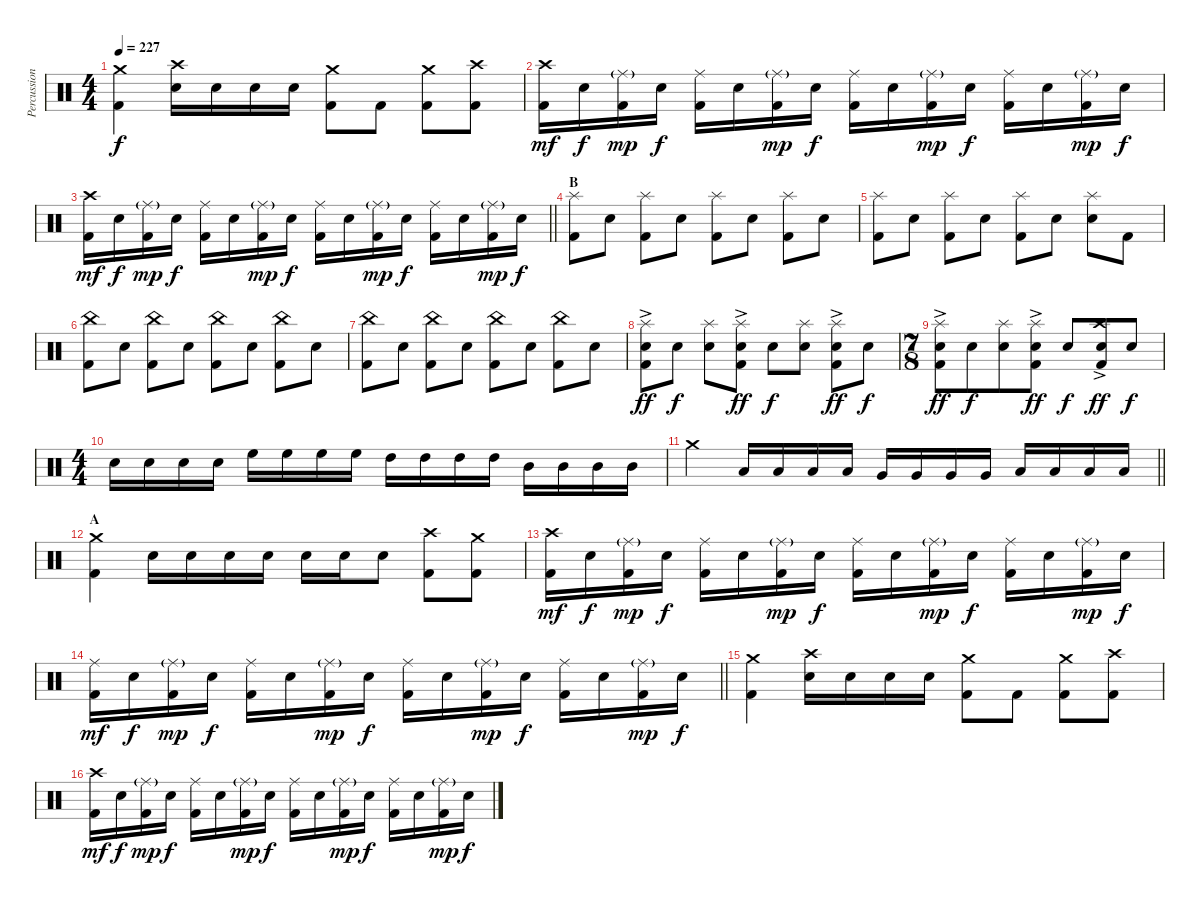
\track ("Percussion" "Percussion") {instrument percussion}
\staff {score}
\articulation defaults
\ts (4 4)
\section ("" "")
\tempo 227
\clef neutral
\ks c
("Crash medium (hit)" "Kick (hit) 2").4{dy f} ("Crash high (hit)" "Electric Snare (hit)").16 "Electric Snare (hit)".16 "Electric Snare (hit)".16 "Electric Snare (hit)".16 ("Crash medium (hit)" "Kick (hit) 2").8 "Kick (hit) 2".8 ("Crash medium (hit)" "Kick (hit) 2").8 ("Crash high (hit)" "Kick (hit) 2").8 |
("Crash high (hit)" "Kick (hit) 2").16{dy mf} "Electric Snare (hit)".16{dy f} ("Ride (middle)"{g} "Kick (hit) 2").16{dy mp} "Electric Snare (hit)".16{dy f} ("Ride (middle)" "Kick (hit) 2").16 "Electric Snare (hit)".16 ("Ride (middle)"{g} "Kick (hit) 2").16{dy mp} "Electric Snare (hit)".16{dy f} ("Ride (middle)" "Kick (hit) 2").16 "Electric Snare (hit)".16 ("Ride (middle)"{g} "Kick (hit) 2").16{dy mp} "Electric Snare (hit)".16{dy f} ("Ride (middle)" "Kick (hit) 2").16 "Electric Snare (hit)".16 ("Ride (middle)"{g} "Kick (hit) 2").16{dy mp} "Electric Snare (hit)".16{dy f} |
\barLineRight lightlight
("Crash high (hit)" "Kick (hit) 2").16{dy mf} "Electric Snare (hit)".16{dy f} ("Ride (middle)"{g} "Kick (hit) 2").16{dy mp} "Electric Snare (hit)".16{dy f} ("Ride (middle)" "Kick (hit) 2").16 "Electric Snare (hit)".16 ("Ride (middle)"{g} "Kick (hit) 2").16{dy mp} "Electric Snare (hit)".16{dy f} ("Ride (middle)" "Kick (hit) 2").16 "Electric Snare (hit)".16 ("Ride (middle)"{g} "Kick (hit) 2").16{dy mp} "Electric Snare (hit)".16{dy f} ("Ride (middle)" "Kick (hit) 2").16 "Electric Snare (hit)".16 ("Ride (middle)"{g} "Kick (hit) 2").16{dy mp} "Electric Snare (hit)".16{dy f} |
\section ("" "B")
("Splash (hit)" "Kick (hit) 2").8 "Electric Snare (hit)".8 ("Splash (hit)" "Kick (hit) 2").8 "Electric Snare (hit)".8 ("Splash (hit)" "Kick (hit) 2").8 "Electric Snare (hit)".8 ("Splash (hit)" "Kick (hit) 2").8 "Electric Snare (hit)".8 |
("Splash (hit)" "Kick (hit) 2").8 "Electric Snare (hit)".8 ("Splash (hit)" "Kick (hit) 2").8 "Electric Snare (hit)".8 ("Splash (hit)" "Kick (hit) 2").8 "Electric Snare (hit)".8 ("Splash (hit)" "Electric Snare (hit)").8 "Kick (hit) 2".8 |
("China (hit)" "Kick (hit) 2").8 "Electric Snare (hit)".8 ("China (hit)" "Kick (hit) 2").8 "Electric Snare (hit)".8 ("China (hit)" "Kick (hit) 2").8 "Electric Snare (hit)".8 ("China (hit)" "Kick (hit) 2").8 "Electric Snare (hit)".8 |
("China (hit)" "Kick (hit) 2").8 "Electric Snare (hit)".8 ("China (hit)" "Kick (hit) 2").8 "Electric Snare (hit)".8 ("China (hit)" "Kick (hit) 2").8 "Electric Snare (hit)".8 ("China (hit)" "Kick (hit) 2").8 "Electric Snare (hit)".8 |
("Splash (hit)"{ac} "Electric Snare (hit)" "Kick (hit) 2").8{dy ff} "Electric Snare (hit)".8{dy f} ("Splash (hit)" "Electric Snare (hit)").8 ("Splash (hit)"{ac} "Electric Snare (hit)" "Kick (hit) 2").8{dy ff} "Electric Snare (hit)".8{dy f} ("Splash (hit)" "Electric Snare (hit)").8 ("Splash (hit)"{ac} "Electric Snare (hit)" "Kick (hit) 2").8{dy ff} "Electric Snare (hit)".8{dy f} |
\ts (7 8)
("Splash (hit)"{ac} "Electric Snare (hit)" "Kick (hit) 2").8{dy ff} "Electric Snare (hit)".8{dy f} ("Splash (hit)" "Electric Snare (hit)").8 ("Splash (hit)"{ac} "Electric Snare (hit)" "Kick (hit) 2").8{dy ff} "Electric Snare (hit)".8{dy f} ("Crash high (hit)"{ac} "Electric Snare (hit)" "Kick (hit) 2").8{dy ff} "Electric Snare (hit)".8{dy f} |
\ts (4 4)
"Electric Snare (hit)".16 "Electric Snare (hit)".16 "Electric Snare (hit)".16 "Electric Snare (hit)".16 "High Floor Tom (hit)".16 "High Floor Tom (hit)".16 "High Floor Tom (hit)".16 "High Floor Tom (hit)".16 "High Tom (hit)".16 "High Tom (hit)".16 "High Tom (hit)".16 "High Tom (hit)".16 "Mid Tom (hit)".16 "Mid Tom (hit)".16 "Mid Tom (hit)".16 "Mid Tom (hit)".16 |
\barLineRight lightlight "Crash medium (hit)".4 "Low Tom (hit)".16 "Low Tom (hit)".16 "Low Tom (hit)".16 "Low Tom (hit)".16 "Very Low Tom (hit)".16 "Very Low Tom (hit)".16 "Very Low Tom (hit)".16 "Very Low Tom (hit)".16 "Low Floor Tom (hit)".16 "Low Floor Tom (hit)".16 "Low Floor Tom (hit)".16 "Low Floor Tom (hit)".16
|
\section ("" "A")
("Crash medium (hit)" "Kick (hit) 2").4 "Electric Snare (hit)".16 "Electric Snare (hit)".16 "Electric Snare (hit)".16 "Electric Snare (hit)".16 "Electric Snare (hit)".16 "Electric Snare (hit)".16 "Electric Snare (hit)".8 ("Crash high (hit)" "Kick (hit) 2").8 ("Crash medium (hit)" "Kick (hit) 2").8 |
("Crash high (hit)" "Kick (hit) 2").16{dy mf} "Electric Snare (hit)".16{dy f} ("Ride (middle)"{g} "Kick (hit) 2").16{dy mp} "Electric Snare (hit)".16{dy f} ("Ride (middle)" "Kick (hit) 2").16 "Electric Snare (hit)".16 ("Ride (middle)"{g} "Kick (hit) 2").16{dy mp} "Electric Snare (hit)".16{dy f} ("Ride (middle)" "Kick (hit) 2").16 "Electric Snare (hit)".16 ("Ride (middle)"{g} "Kick (hit) 2").16{dy mp} "Electric Snare (hit)".16{dy f} ("Ride (middle)" "Kick (hit) 2").16 "Electric Snare (hit)".16 ("Ride (middle)"{g} "Kick (hit) 2").16{dy mp} "Electric Snare (hit)".16{dy f} |
\barLineRight lightlight
("Ride (middle)" "Kick (hit) 2").16{dy mf} "Electric Snare (hit)".16{dy f} ("Ride (middle)"{g} "Kick (hit) 2").16{dy mp} "Electric Snare (hit)".16{dy f} ("Ride (middle)" "Kick (hit) 2").16 "Electric Snare (hit)".16 ("Ride (middle)"{g} "Kick (hit) 2").16{dy mp} "Electric Snare (hit)".16{dy f} ("Ride (middle)" "Kick (hit) 2").16 "Electric Snare (hit)".16 ("Ride (middle)"{g} "Kick (hit) 2").16{dy mp} "Electric Snare (hit)".16{dy f} ("Ride (middle)" "Kick (hit) 2").16 "Electric Snare (hit)".16 ("Ride (middle)"{g} "Kick (hit) 2").16{dy mp} "Electric Snare (hit)".16{dy f} |
\section ("" "")
("Crash medium (hit)" "Kick (hit) 2").4 ("Crash high (hit)" "Electric Snare (hit)").16 "Electric Snare (hit)".16 "Electric Snare (hit)".16 "Electric Snare (hit)".16 ("Crash medium (hit)" "Kick (hit) 2").8 "Kick (hit) 2".8 ("Crash medium (hit)" "Kick (hit) 2").8 ("Crash high (hit)" "Kick (hit) 2").8 |
("Crash high (hit)" "Kick (hit) 2").16{dy mf} "Electric Snare (hit)".16{dy f} ("Ride (middle)"{g} "Kick (hit) 2").16{dy mp} "Electric Snare (hit)".16{dy f} ("Ride (middle)" "Kick (hit) 2").16 "Electric Snare (hit)".16 ("Ride (middle)"{g} "Kick (hit) 2").16{dy mp} "Electric Snare (hit)".16{dy f} ("Ride (middle)" "Kick (hit) 2").16 "Electric Snare (hit)".16 ("Ride (middle)"{g} "Kick (hit) 2").16{dy mp} "Electric Snare (hit)".16{dy f} ("Ride (middle)" "Kick (hit) 2").16 "Electric Snare (hit)".16 ("Ride (middle)"{g} "Kick (hit) 2").16{dy mp} "Electric Snare (hit)".16{dy f}
